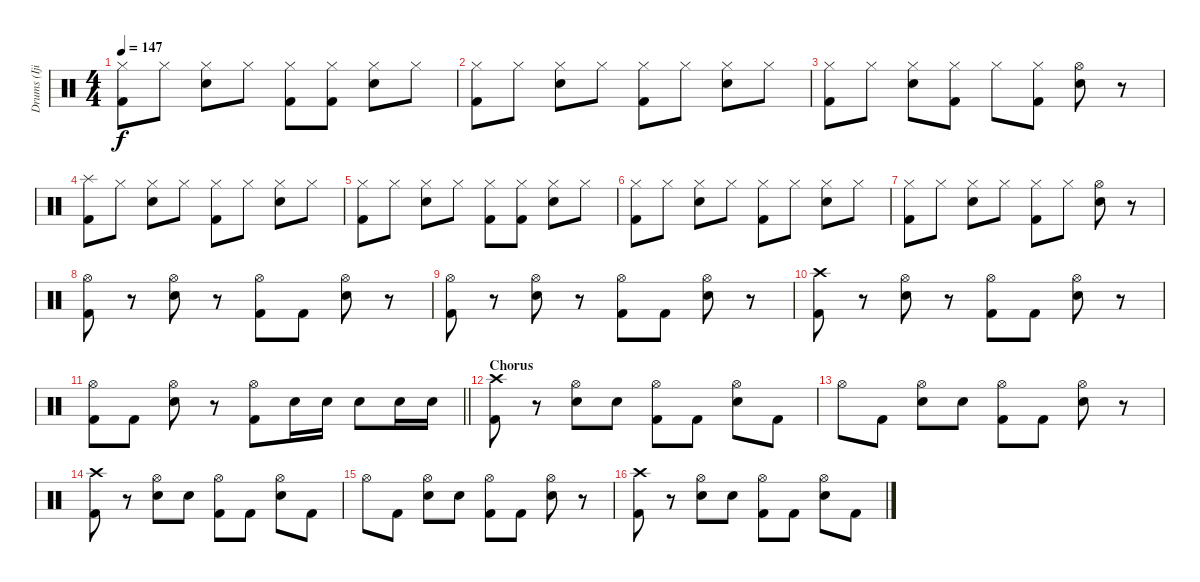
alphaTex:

\track ("Drums (Ijichi)" "Drums (Iji") {instrument percussion}
\staff {score}
\articulation defaults
\ts (4 4)
\tempo 147
\clef neutral
\ks c
("Hi-Hat (closed)" "Kick (hit) 2").8{dy f} "Hi-Hat (closed)".8 ("Hi-Hat (closed)" "Snare (hit) 2").8 "Hi-Hat (closed)".8 ("Hi-Hat (closed)" "Kick (hit) 2").8 ("Hi-Hat (closed)" "Kick (hit) 2").8 ("Hi-Hat (closed)" "Snare (hit) 2").8 "Hi-Hat (closed)".8 |
("Hi-Hat (closed)" "Kick (hit) 2").8 "Hi-Hat (closed)".8 ("Hi-Hat (closed)" "Snare (hit) 2").8 "Hi-Hat (closed)".8 ("Hi-Hat (closed)" "Kick (hit) 2").8 "Hi-Hat (closed)".8 ("Hi-Hat (closed)" "Snare (hit) 2").8 "Hi-Hat (closed)".8 |
("Hi-Hat (closed)" "Kick (hit) 2").8 "Hi-Hat (closed)".8 ("Hi-Hat (closed)" "Snare (hit) 2").8 ("Hi-Hat (closed)" "Kick (hit) 2").8 "Hi-Hat (closed)".8 ("Hi-Hat (closed)" "Kick (hit) 2").8 ("Hi-Hat (open)" "Snare (hit) 2").8 r.8 |
("Splash (hit)" "Kick (hit) 2").8 "Hi-Hat (closed)".8 ("Hi-Hat (closed)" "Snare (hit) 2").8 "Hi-Hat (closed)".8 ("Hi-Hat (closed)" "Kick (hit) 2").8 "Hi-Hat (closed)".8 ("Hi-Hat (closed)" "Snare (hit) 2").8 "Hi-Hat (closed)".8 |
("Hi-Hat (closed)" "Kick (hit) 2").8 "Hi-Hat (closed)".8 ("Hi-Hat (closed)" "Snare (hit) 2").8 "Hi-Hat (closed)".8 ("Hi-Hat (closed)" "Kick (hit) 2").8 ("Hi-Hat (closed)" "Kick (hit) 2").8 ("Hi-Hat (closed)" "Snare (hit) 2").8 "Hi-Hat (closed)".8 |
("Hi-Hat (closed)" "Kick (hit) 2").8 "Hi-Hat (closed)".8 ("Hi-Hat (closed)" "Snare (hit) 2").8 "Hi-Hat (closed)".8 ("Hi-Hat (closed)" "Kick (hit) 2").8 "Hi-Hat (closed)".8 ("Hi-Hat (closed)" "Snare (hit) 2").8 "Hi-Hat (closed)".8 |
("Hi-Hat (closed)" "Kick (hit) 2").8 "Hi-Hat (closed)".8 ("Hi-Hat (closed)" "Snare (hit) 2").8 "Hi-Hat (closed)".8 ("Hi-Hat (closed)" "Kick (hit) 2").8 "Hi-Hat (closed)".8 ("Hi-Hat (open)" "Snare (hit) 2").8 r.8 |
("Hi-Hat (open)" "Kick (hit) 2").8 r.8 ("Hi-Hat (open)" "Snare (hit) 2").8 r.8 ("Hi-Hat (open)" "Kick (hit) 2").8 "Kick (hit) 2".8 ("Hi-Hat (open)" "Snare (hit) 2").8 r.8 |
("Hi-Hat (open)" "Kick (hit) 2").8 r.8 ("Hi-Hat (open)" "Snare (hit) 2").8 r.8 ("Hi-Hat (open)" "Kick (hit) 2").8 "Kick (hit) 2".8 ("Hi-Hat (open)" "Snare (hit) 2").8 r.8 |
("Crash high (hit)" "Kick (hit) 2").8 r.8 ("Hi-Hat (open)" "Snare (hit) 2").8 r.8 ("Hi-Hat (open)" "Kick (hit) 2").8 "Kick (hit) 2".8 ("Hi-Hat (open)" "Snare (hit) 2").8 r.8 |
\barLineRight lightlight
("Hi-Hat (open)" "Kick (hit) 2").8 "Kick (hit) 2".8 ("Hi-Hat (open)" "Snare (hit) 2").8 r.8 ("Hi-Hat (open)" "Kick (hit) 2").8 "Snare (hit) 2".16 "Snare (hit) 2".16 "Snare (hit) 2".8 "Snare (hit) 2".16 "Snare (hit) 2".16 |
\section ("" "Chorus")
("Crash high (hit)" "Kick (hit) 2").8 r.8 ("Hi-Hat (open)" "Snare (hit) 2").8 "Snare (hit) 2".8 ("Hi-Hat (open)" "Kick (hit) 2").8 "Kick (hit) 2".8 ("Hi-Hat (open)" "Snare (hit) 2").8 "Kick (hit) 2".8 |
"Hi-Hat (open)".8 "Kick (hit) 2".8 ("Hi-Hat (open)" "Snare (hit) 2").8 "Snare (hit) 2".8 ("Hi-Hat (open)" "Kick (hit) 2").8 "Kick (hit) 2".8 ("Hi-Hat (open)" "Snare (hit) 2").8 r.8 |
("Crash high (hit)" "Kick (hit) 2").8 r.8 ("Hi-Hat (open)" "Snare (hit) 2").8 "Snare (hit) 2".8 ("Hi-Hat (open)" "Kick (hit) 2").8 "Kick (hit) 2".8 ("Hi-Hat (open)" "Snare (hit) 2").8 "Kick (hit) 2".8 |
"Hi-Hat (open)".8 "Kick (hit) 2".8 ("Hi-Hat (open)" "Snare (hit) 2").8 "Snare (hit) 2".8 ("Hi-Hat (open)" "Kick (hit) 2").8 "Kick (hit) 2".8 ("Hi-Hat (open)" "Snare (hit) 2").8 r.8 |
("Crash high (hit)" "Kick (hit) 2").8 r.8 ("Hi-Hat (open)" "Snare (hit) 2").8 "Snare (hit) 2".8 ("Hi-Hat (open)" "Kick (hit) 2").8 "Kick (hit) 2".8 ("Hi-Hat (open)" "Snare (hit) 2").8 "Kick (hit) 2".8
